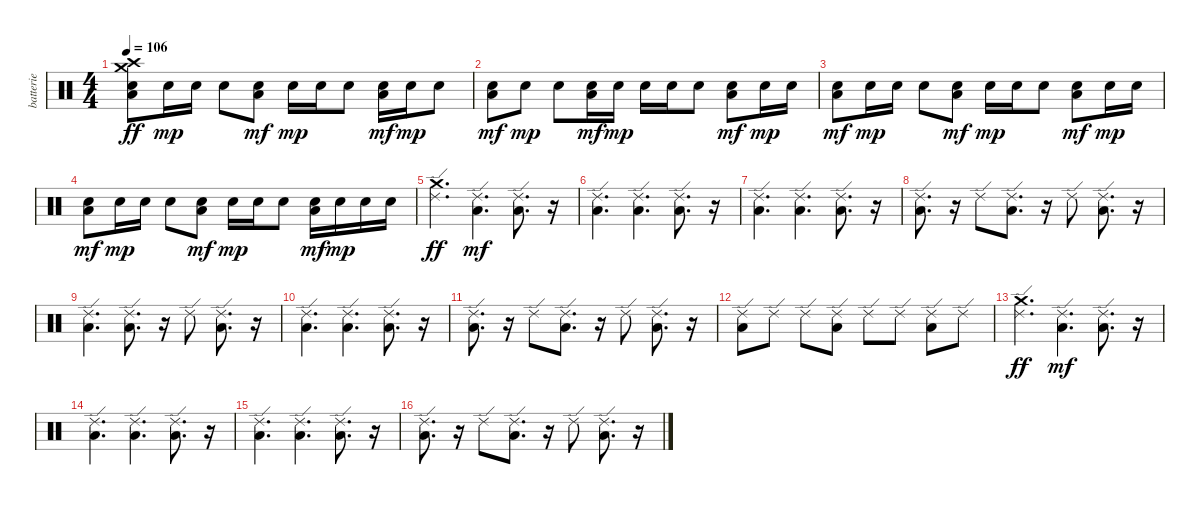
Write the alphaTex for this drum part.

\track ("batterie" "batterie") {instrument percussion}
\staff {score}
\articulation defaults
\ts (4 4)
\tempo 106
\clef neutral
\ks c
("Electric Snare (hit)" "Low Floor Tom (hit)" "Crash high (hit)" "Crash medium (hit)").8{dy ff} "Electric Snare (hit)".16{dy mp} "Electric Snare (hit)".16 "Electric Snare (hit)".8 ("Electric Snare (hit)" "Low Floor Tom (hit)").8{dy mf} "Electric Snare (hit)".16{dy mp} "Electric Snare (hit)".16 "Electric Snare (hit)".8 ("Electric Snare (hit)" "Low Floor Tom (hit)").16{dy mf} "Electric Snare (hit)".16{dy mp} "Electric Snare (hit)".8 |
("Electric Snare (hit)" "Low Floor Tom (hit)").8{dy mf} "Electric Snare (hit)".8{dy mp} "Electric Snare (hit)".8 ("Electric Snare (hit)" "Low Floor Tom (hit)").16{dy mf} "Electric Snare (hit)".16{dy mp} "Electric Snare (hit)".16 "Electric Snare (hit)".16 "Electric Snare (hit)".8 ("Electric Snare (hit)" "Low Floor Tom (hit)").8{dy mf} "Electric Snare (hit)".16{dy mp} "Electric Snare (hit)".16 |
("Electric Snare (hit)" "Low Floor Tom (hit)").8{dy mf} "Electric Snare (hit)".16{dy mp} "Electric Snare (hit)".16 "Electric Snare (hit)".8 ("Electric Snare (hit)" "Low Floor Tom (hit)").8{dy mf} "Electric Snare (hit)".16{dy mp} "Electric Snare (hit)".16 "Electric Snare (hit)".8 ("Electric Snare (hit)" "Low Floor Tom (hit)").8{dy mf} "Electric Snare (hit)".16{dy mp} "Electric Snare (hit)".16 |
("Electric Snare (hit)" "Low Floor Tom (hit)").8{dy mf} "Electric Snare (hit)".16{dy mp} "Electric Snare (hit)".16 "Electric Snare (hit)".8 ("Electric Snare (hit)" "Low Floor Tom (hit)").8{dy mf} "Electric Snare (hit)".16{dy mp} "Electric Snare (hit)".16 "Electric Snare (hit)".8 ("Electric Snare (hit)" "Low Floor Tom (hit)").16{dy mf} "Electric Snare (hit)".16{dy mp} "Electric Snare (hit)".16 "Electric Snare (hit)".16 |
("Crash medium (hit)" "Ride (edge) 2").4{d dy ff} ("Low Floor Tom (hit)" "Ride (edge) 2").4{d dy mf} ("Low Floor Tom (hit)" "Ride (edge) 2").8{d} r.16 |
("Low Floor Tom (hit)" "Ride (edge) 2").4{d} ("Low Floor Tom (hit)" "Ride (edge) 2").4{d} ("Low Floor Tom (hit)" "Ride (edge) 2").8{d} r.16 |
("Low Floor Tom (hit)" "Ride (edge) 2").4{d} ("Low Floor Tom (hit)" "Ride (edge) 2").4{d} ("Low Floor Tom (hit)" "Ride (edge) 2").8{d} r.16 |
("Low Floor Tom (hit)" "Ride (edge) 2").8{d} r.16 "Ride (edge) 2".8 ("Low Floor Tom (hit)" "Ride (edge) 2").8{d} r.16 "Ride (edge) 2".8 ("Low Floor Tom (hit)" "Ride (edge) 2").8{d} r.16 |
("Low Floor Tom (hit)" "Ride (edge) 2").4{d} ("Low Floor Tom (hit)" "Ride (edge) 2").8{d} r.16 "Ride (edge) 2".8 ("Low Floor Tom (hit)" "Ride (edge) 2").8{d} r.16 |
("Low Floor Tom (hit)" "Ride (edge) 2").4{d} ("Low Floor Tom (hit)" "Ride (edge) 2").4{d} ("Low Floor Tom (hit)" "Ride (edge) 2").8{d} r.16 |
("Low Floor Tom (hit)" "Ride (edge) 2").8{d} r.16 "Ride (edge) 2".8 ("Low Floor Tom (hit)" "Ride (edge) 2").8{d} r.16 "Ride (edge) 2".8 ("Low Floor Tom (hit)" "Ride (edge) 2").8{d} r.16 |
("Low Floor Tom (hit)" "Ride (edge) 2").8 "Ride (edge) 2".8 "Ride (edge) 2".8 ("Low Floor Tom (hit)" "Ride (edge) 2").8 "Ride (edge) 2".8 "Ride (edge) 2".8 ("Low Floor Tom (hit)" "Ride (edge) 2").8 "Ride (edge) 2".8 |
("Crash medium (hit)" "Ride (edge) 2").4{d dy ff} ("Low Floor Tom (hit)" "Ride (edge) 2").4{d dy mf} ("Low Floor Tom (hit)" "Ride (edge) 2").8{d} r.16 |
("Low Floor Tom (hit)" "Ride (edge) 2").4{d} ("Low Floor Tom (hit)" "Ride (edge) 2").4{d} ("Low Floor Tom (hit)" "Ride (edge) 2").8{d} r.16 |
("Low Floor Tom (hit)" "Ride (edge) 2").4{d} ("Low Floor Tom (hit)" "Ride (edge) 2").4{d} ("Low Floor Tom (hit)" "Ride (edge) 2").8{d} r.16 |
("Low Floor Tom (hit)" "Ride (edge) 2").8{d} r.16 "Ride (edge) 2".8 ("Low Floor Tom (hit)" "Ride (edge) 2").8{d} r.16 "Ride (edge) 2".8 ("Low Floor Tom (hit)" "Ride (edge) 2").8{d} r.16
